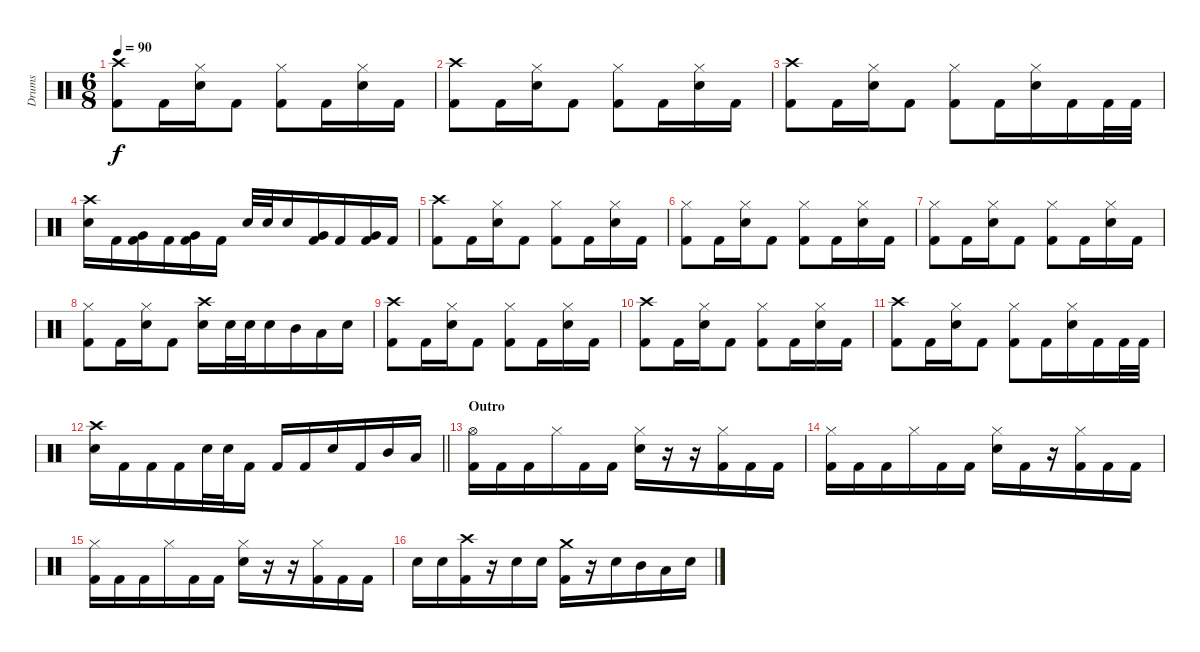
\track ("Drums" "Drums") {instrument percussion}
\staff {score}
\articulation defaults
\ts (6 8)
\tempo 90
\clef neutral
\ks c
("Crash high (hit)" "Kick (hit) 2").8{dy f} "Kick (hit) 2".16 ("Hi-Hat (closed)" "Snare (hit) 2").16 "Kick (hit) 2".8 ("Hi-Hat (closed)" "Kick (hit) 2").8 "Kick (hit) 2".16 ("Hi-Hat (closed)" "Snare (hit) 2").16 "Kick (hit) 2".16 |
("Crash high (hit)" "Kick (hit) 2").8 "Kick (hit) 2".16 ("Hi-Hat (closed)" "Snare (hit) 2").16 "Kick (hit) 2".8 ("Hi-Hat (closed)" "Kick (hit) 2").8 "Kick (hit) 2".16 ("Hi-Hat (closed)" "Snare (hit) 2").16 "Kick (hit) 2".16 |
("Crash high (hit)" "Kick (hit) 2").8 "Kick (hit) 2".16 ("Hi-Hat (closed)" "Snare (hit) 2").16 "Kick (hit) 2".8 ("Hi-Hat (closed)" "Kick (hit) 2").8 "Kick (hit) 2".16 ("Hi-Hat (closed)" "Snare (hit) 2").16 "Kick (hit) 2".16 "Kick (hit) 2".32 "Kick (hit) 2".32 |
("Crash high (hit)" "Snare (hit) 2").16 "Kick (hit) 2".16 ("Kick (hit) 2" "Very Low Tom (hit)").16 "Kick (hit) 2".16 ("Kick (hit) 2" "Very Low Tom (hit)").16 "Kick (hit) 2".16 "Snare (hit) 2".32 "Snare (hit) 2".32 "Snare (hit) 2".16 ("Kick (hit) 2" "Very Low Tom (hit)").16 "Kick (hit) 2".16 ("Kick (hit) 2" "Very Low Tom (hit)").16 "Kick (hit) 2".16 |
("Crash high (hit)" "Kick (hit) 2").8 "Kick (hit) 2".16 ("Hi-Hat (closed)" "Snare (hit) 2").16 "Kick (hit) 2".8 ("Hi-Hat (closed)" "Kick (hit) 2").8 "Kick (hit) 2".16 ("Hi-Hat (closed)" "Snare (hit) 2").16 "Kick (hit) 2".16 |
("Hi-Hat (closed)" "Kick (hit) 2").8 "Kick (hit) 2".16 ("Hi-Hat (closed)" "Snare (hit) 2").16 "Kick (hit) 2".8 ("Hi-Hat (closed)" "Kick (hit) 2").8 "Kick (hit) 2".16 ("Hi-Hat (closed)" "Snare (hit) 2").16 "Kick (hit) 2".16 |
("Hi-Hat (closed)" "Kick (hit) 2").8 "Kick (hit) 2".16 ("Hi-Hat (closed)" "Snare (hit) 2").16 "Kick (hit) 2".8 ("Hi-Hat (closed)" "Kick (hit) 2").8 "Kick (hit) 2".16 ("Hi-Hat (closed)" "Snare (hit) 2").16 "Kick (hit) 2".16 |
("Hi-Hat (closed)" "Kick (hit) 2").8 "Kick (hit) 2".16 ("Hi-Hat (closed)" "Snare (hit) 2").16 "Kick (hit) 2".8 ("Crash high (hit)" "Snare (hit) 2").16 "Snare (hit) 2".32 "Snare (hit) 2".32 "Snare (hit) 2".16 "Mid Tom (hit)".16 "Low Tom (hit)".16 "Snare (hit) 2".16 |
("Crash high (hit)" "Kick (hit) 2").8 "Kick (hit) 2".16 ("Hi-Hat (closed)" "Snare (hit) 2").16 "Kick (hit) 2".8 ("Hi-Hat (closed)" "Kick (hit) 2").8 "Kick (hit) 2".16 ("Hi-Hat (closed)" "Snare (hit) 2").16 "Kick (hit) 2".16 |
("Crash high (hit)" "Kick (hit) 2").8 "Kick (hit) 2".16 ("Hi-Hat (closed)" "Snare (hit) 2").16 "Kick (hit) 2".8 ("Hi-Hat (closed)" "Kick (hit) 2").8 "Kick (hit) 2".16 ("Hi-Hat (closed)" "Snare (hit) 2").16 "Kick (hit) 2".16 |
("Crash high (hit)" "Kick (hit) 2").8 "Kick (hit) 2".16 ("Hi-Hat (closed)" "Snare (hit) 2").16 "Kick (hit) 2".8 ("Hi-Hat (closed)" "Kick (hit) 2").8 "Kick (hit) 2".16 ("Hi-Hat (closed)" "Snare (hit) 2").16 "Kick (hit) 2".16 "Kick (hit) 2".32 "Kick (hit) 2".32 |
\barLineRight lightlight
("Crash high (hit)" "Snare (hit) 2").16 "Kick (hit) 2".16 "Kick (hit) 2".16 "Kick (hit) 2".16 "Snare (hit) 2".32 "Snare (hit) 2".32 "Kick (hit) 2".16 "Kick (hit) 2".16 "Kick (hit) 2".16 "Snare (hit) 2".16 "Kick (hit) 2".16 "Mid Tom (hit)".16 "Low Tom (hit)".16 |
\section ("" "Outro")
("Hi-Hat (open)" "Kick (hit) 2").16 "Kick (hit) 2".16 "Kick (hit) 2".16 "Hi-Hat (closed)".16 "Kick (hit) 2".16 "Kick (hit) 2".16 ("Hi-Hat (closed)" "Snare (hit) 2").16 r.16 r.16 ("Hi-Hat (closed)" "Kick (hit) 2").16 "Kick (hit) 2".16 "Kick (hit) 2".16 |
("Hi-Hat (closed)" "Kick (hit) 2").16 "Kick (hit) 2".16 "Kick (hit) 2".16 "Hi-Hat (closed)".16 "Kick (hit) 2".16 "Kick (hit) 2".16 ("Hi-Hat (closed)" "Snare (hit) 2").16 "Kick (hit) 2".16 r.16 ("Hi-Hat (closed)" "Kick (hit) 2").16 "Kick (hit) 2".16 "Kick (hit) 2".16 |
("Hi-Hat (closed)" "Kick (hit) 2").16 "Kick (hit) 2".16 "Kick (hit) 2".16 "Hi-Hat (closed)".16 "Kick (hit) 2".16 "Kick (hit) 2".16 ("Hi-Hat (closed)" "Snare (hit) 2").16 r.16 r.16 ("Hi-Hat (closed)" "Kick (hit) 2").16 "Kick (hit) 2".16 "Kick (hit) 2".16 |
"Snare (hit) 2".16 "Snare (hit) 2".16 ("Crash high (hit)" "Kick (hit) 2").16 r.16 "Snare (hit) 2".16 "Snare (hit) 2".16 ("Crash medium (hit)" "Kick (hit) 2").16 r.16 "Snare (hit) 2".16 "Mid Tom (hit)".16 "Low Tom (hit)".16 "Snare (hit) 2".16
